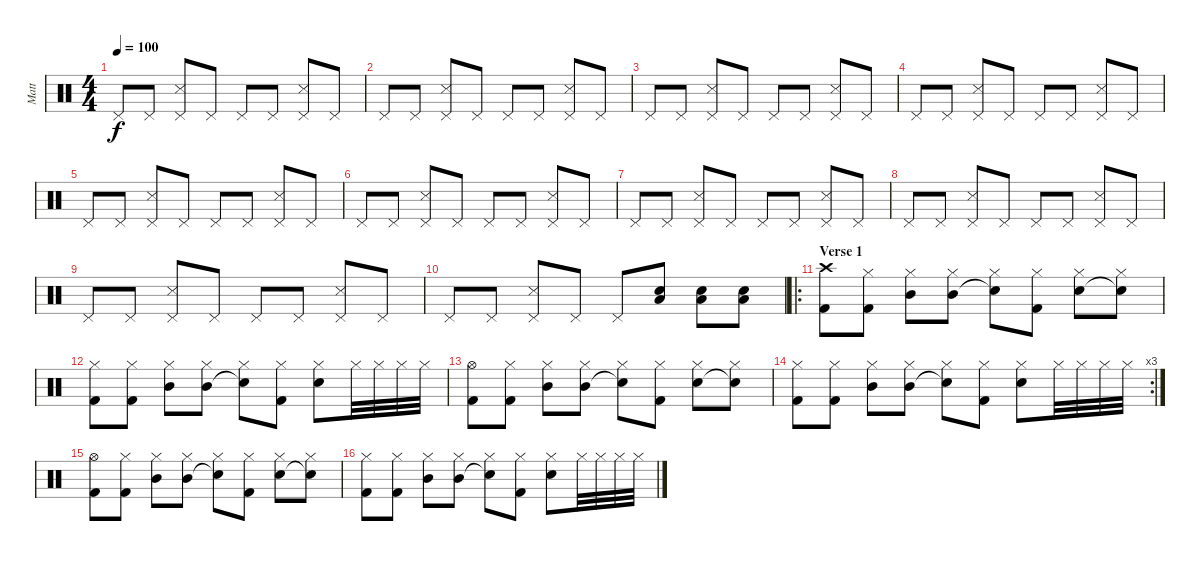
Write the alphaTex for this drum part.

\track ("Matt" "Matt") {instrument percussion}
\staff {score}
\articulation defaults
\ts (4 4)
\tempo 100
\clef neutral
\ks c "Pedal Hi-Hat (hit)".8{dy f} "Pedal Hi-Hat (hit)".8
("Pedal Hi-Hat (hit)" "Snare (side stick) 3").8 "Pedal Hi-Hat (hit)".8 "Pedal Hi-Hat (hit)".8 "Pedal Hi-Hat (hit)".8 ("Pedal Hi-Hat (hit)" "Snare (side stick) 3").8 "Pedal Hi-Hat (hit)".8 |
"Pedal Hi-Hat (hit)".8 "Pedal Hi-Hat (hit)".8 ("Pedal Hi-Hat (hit)" "Snare (side stick) 3").8 "Pedal Hi-Hat (hit)".8 "Pedal Hi-Hat (hit)".8 "Pedal Hi-Hat (hit)".8 ("Pedal Hi-Hat (hit)" "Snare (side stick) 3").8 "Pedal Hi-Hat (hit)".8 |
"Pedal Hi-Hat (hit)".8 "Pedal Hi-Hat (hit)".8 ("Pedal Hi-Hat (hit)" "Snare (side stick) 3").8 "Pedal Hi-Hat (hit)".8 "Pedal Hi-Hat (hit)".8 "Pedal Hi-Hat (hit)".8 ("Pedal Hi-Hat (hit)" "Snare (side stick) 3").8 "Pedal Hi-Hat (hit)".8 |
"Pedal Hi-Hat (hit)".8 "Pedal Hi-Hat (hit)".8 ("Pedal Hi-Hat (hit)" "Snare (side stick) 3").8 "Pedal Hi-Hat (hit)".8 "Pedal Hi-Hat (hit)".8 "Pedal Hi-Hat (hit)".8 ("Pedal Hi-Hat (hit)" "Snare (side stick) 3").8 "Pedal Hi-Hat (hit)".8 |
"Pedal Hi-Hat (hit)".8 "Pedal Hi-Hat (hit)".8 ("Pedal Hi-Hat (hit)" "Snare (side stick) 3").8 "Pedal Hi-Hat (hit)".8 "Pedal Hi-Hat (hit)".8 "Pedal Hi-Hat (hit)".8 ("Pedal Hi-Hat (hit)" "Snare (side stick) 3").8 "Pedal Hi-Hat (hit)".8 |
"Pedal Hi-Hat (hit)".8 "Pedal Hi-Hat (hit)".8 ("Pedal Hi-Hat (hit)" "Snare (side stick) 3").8 "Pedal Hi-Hat (hit)".8 "Pedal Hi-Hat (hit)".8 "Pedal Hi-Hat (hit)".8 ("Pedal Hi-Hat (hit)" "Snare (side stick) 3").8 "Pedal Hi-Hat (hit)".8 |
"Pedal Hi-Hat (hit)".8 "Pedal Hi-Hat (hit)".8 ("Pedal Hi-Hat (hit)" "Snare (side stick) 3").8 "Pedal Hi-Hat (hit)".8 "Pedal Hi-Hat (hit)".8 "Pedal Hi-Hat (hit)".8 ("Pedal Hi-Hat (hit)" "Snare (side stick) 3").8 "Pedal Hi-Hat (hit)".8 |
"Pedal Hi-Hat (hit)".8 "Pedal Hi-Hat (hit)".8 ("Pedal Hi-Hat (hit)" "Snare (side stick) 3").8 "Pedal Hi-Hat (hit)".8 "Pedal Hi-Hat (hit)".8 "Pedal Hi-Hat (hit)".8 ("Pedal Hi-Hat (hit)" "Snare (side stick) 3").8 "Pedal Hi-Hat (hit)".8 |
"Pedal Hi-Hat (hit)".8 "Pedal Hi-Hat (hit)".8 ("Pedal Hi-Hat (hit)" "Snare (side stick) 3").8 "Pedal Hi-Hat (hit)".8 "Pedal Hi-Hat (hit)".8 "Pedal Hi-Hat (hit)".8 ("Pedal Hi-Hat (hit)" "Snare (side stick) 3").8 "Pedal Hi-Hat (hit)".8 |
"Pedal Hi-Hat (hit)".8 "Pedal Hi-Hat (hit)".8 ("Pedal Hi-Hat (hit)" "Snare (side stick) 3").8 "Pedal Hi-Hat (hit)".8 "Pedal Hi-Hat (hit)".8 ("Low Floor Tom (hit)" "Electric Snare (hit)").8 ("Low Floor Tom (hit)" "Electric Snare (hit)").8 ("Low Floor Tom (hit)" "Electric Snare (hit)").8 |
\ro
\section ("" "Verse 1")
("Crash high (hit)" "Kick (hit) 2").8 ("Hi-Hat (closed)" "Kick (hit) 2").8 ("Hi-Hat (closed)" "Mid Tom (hit)").8 ("Hi-Hat (closed)" "Mid Tom (hit)").8 ("Hi-Hat (closed)" "Snare (hit)"{t}).8 ("Hi-Hat (closed)" "Kick (hit) 2").8 ("Hi-Hat (closed)" "Electric Snare (hit)").8 ("Hi-Hat (closed)" "Snare (hit)"{t}).8 |
("Hi-Hat (closed)" "Kick (hit) 2").8 ("Hi-Hat (closed)" "Kick (hit) 2").8 ("Hi-Hat (closed)" "Mid Tom (hit)").8 ("Hi-Hat (closed)" "Mid Tom (hit)").8 ("Hi-Hat (closed)" "Snare (hit)"{t}).8 ("Hi-Hat (closed)" "Kick (hit) 2").8 ("Hi-Hat (closed)" "Electric Snare (hit)").8 "Hi-Hat (closed)".32 "Hi-Hat (closed)".32 "Hi-Hat (closed)".32 "Hi-Hat (closed)".32 |
("Hi-Hat (open)" "Kick (hit) 2").8 ("Hi-Hat (closed)" "Kick (hit) 2").8 ("Hi-Hat (closed)" "Mid Tom (hit)").8 ("Hi-Hat (closed)" "Mid Tom (hit)").8 ("Hi-Hat (closed)" "Snare (hit)"{t}).8 ("Hi-Hat (closed)" "Kick (hit) 2").8 ("Hi-Hat (closed)" "Electric Snare (hit)").8 ("Hi-Hat (closed)" "Snare (hit)"{t}).8 |
\rc 3
("Hi-Hat (closed)" "Kick (hit) 2").8 ("Hi-Hat (closed)" "Kick (hit) 2").8 ("Hi-Hat (closed)" "Mid Tom (hit)").8 ("Hi-Hat (closed)" "Mid Tom (hit)").8 ("Hi-Hat (closed)" "Snare (hit)"{t}).8 ("Hi-Hat (closed)" "Kick (hit) 2").8 ("Hi-Hat (closed)" "Electric Snare (hit)").8 "Hi-Hat (closed)".32 "Hi-Hat (closed)".32 "Hi-Hat (closed)".32 "Hi-Hat (closed)".32 |
("Hi-Hat (open)" "Kick (hit) 2").8 ("Hi-Hat (closed)" "Kick (hit) 2").8 ("Hi-Hat (closed)" "Mid Tom (hit)").8 ("Hi-Hat (closed)" "Mid Tom (hit)").8 ("Hi-Hat (closed)" "Snare (hit)"{t}).8 ("Hi-Hat (closed)" "Kick (hit) 2").8 ("Hi-Hat (closed)" "Electric Snare (hit)").8 ("Hi-Hat (closed)" "Snare (hit)"{t}).8 |
("Hi-Hat (closed)" "Kick (hit) 2").8 ("Hi-Hat (closed)" "Kick (hit) 2").8 ("Hi-Hat (closed)" "Mid Tom (hit)").8 ("Hi-Hat (closed)" "Mid Tom (hit)").8 ("Hi-Hat (closed)" "Snare (hit)"{t}).8 ("Hi-Hat (closed)" "Kick (hit) 2").8 ("Hi-Hat (closed)" "Electric Snare (hit)").8 "Hi-Hat (closed)".32 "Hi-Hat (closed)".32 "Hi-Hat (closed)".32 "Hi-Hat (closed)".32
